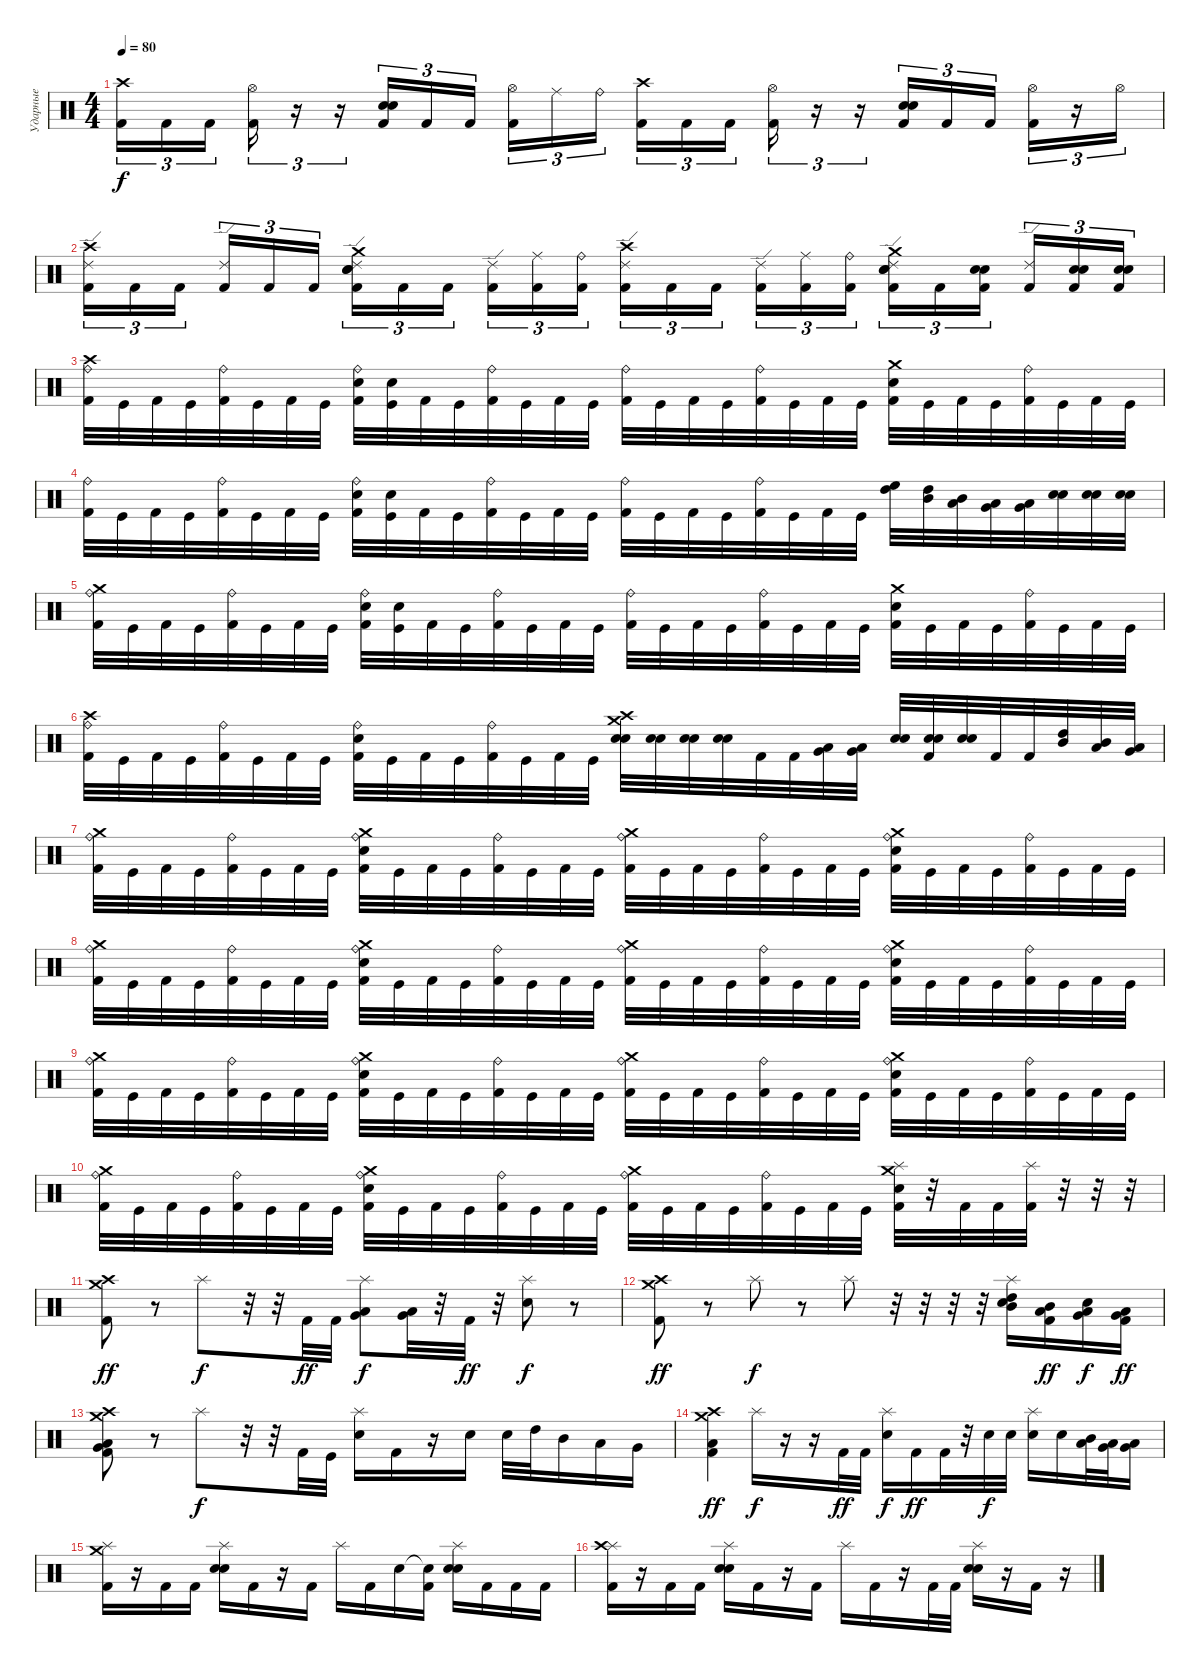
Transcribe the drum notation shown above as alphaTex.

\track ("Ударные" "Ударные") {instrument percussion}
\staff {score}
\articulation defaults
\ts (4 4)
\tempo 80
\clef neutral
\ks c
("Crash high (hit)" "Kick (hit) 2").16{tu (3 2) dy f} "Kick (hit) 2".16{tu (3 2)} "Kick (hit) 2".16{tu (3 2)} ("Hi-Hat (open)" "Kick (hit) 2").16{tu (3 2)} r.16{tu (3 2)} r.16{tu (3 2)} ("Snare (hit)" "Electric Snare (hit)" "Kick (hit) 2").16{tu (3 2)} "Kick (hit) 2".16{tu (3 2)} "Kick (hit) 2".16{tu (3 2)} ("Hi-Hat (open)" "Kick (hit) 2").16{tu (3 2)} "Ride (middle)".16{tu (3 2)} "Ride (bell)".16{tu (3 2)} ("Crash high (hit)" "Kick (hit) 2").16{tu (3 2)} "Kick (hit) 2".16{tu (3 2)} "Kick (hit) 2".16{tu (3 2)} ("Hi-Hat (open)" "Kick (hit) 2").16{tu (3 2)} r.16{tu (3 2)} r.16{tu (3 2)} ("Snare (hit)" "Electric Snare (hit)" "Kick (hit) 2").16{tu (3 2)} "Kick (hit) 2".16{tu (3 2)} "Kick (hit) 2".16{tu (3 2)} ("Hi-Hat (open)" "Kick (hit) 2").16{tu (3 2)} r.16{tu (3 2)} "Hi-Hat (open)".16{tu (3 2)} |
("Ride (edge) 2" "Crash high (hit)" "Kick (hit) 2").16{tu (3 2)} "Kick (hit) 2".16{tu (3 2)} "Kick (hit) 2".16{tu (3 2)} ("Ride (edge) 2" "Kick (hit) 2").16{tu (3 2)} "Kick (hit) 2".16{tu (3 2)} "Kick (hit) 2".16{tu (3 2)} ("Crash medium (hit)" "Ride (edge) 2" "Snare (hit)" "Electric Snare (hit)" "Kick (hit) 2").16{tu (3 2)} "Kick (hit) 2".16{tu (3 2)} "Kick (hit) 2".16{tu (3 2)} ("Ride (edge) 2" "Kick (hit) 2").16{tu (3 2)} ("Ride (middle)" "Kick (hit) 2").16{tu (3 2)} ("Ride (bell)" "Kick (hit) 2").16{tu (3 2)} ("Ride (edge) 2" "Crash high (hit)" "Kick (hit) 2").16{tu (3 2)} "Kick (hit) 2".16{tu (3 2)} "Kick (hit) 2".16{tu (3 2)} ("Ride (edge) 2" "Kick (hit) 2").16{tu (3 2)} ("Ride (middle)" "Kick (hit) 2").16{tu (3 2)} ("Ride (bell)" "Kick (hit) 2").16{tu (3 2)} ("Crash medium (hit)" "Ride (edge) 2" "Snare (hit)" "Electric Snare (hit)" "Kick (hit) 2").16{tu (3 2)} "Kick (hit) 2".16{tu (3 2)} ("Electric Snare (hit)" "Snare (hit)" "Kick (hit) 2").16{tu (3 2)} ("Ride (edge) 2" "Kick (hit) 2").16{tu (3 2)} ("Electric Snare (hit)" "Snare (hit)" "Kick (hit) 2").16{tu (3 2)} ("Electric Snare (hit)" "Snare (hit)" "Kick (hit) 2").16{tu (3 2)} |
("Crash high (hit)" "Ride (bell)" "Kick (hit) 2").32 "Kick (hit)".32 "Kick (hit) 2".32 "Kick (hit)".32 ("Ride (bell)" "Kick (hit) 2").32 "Kick (hit)".32 "Kick (hit) 2".32 "Kick (hit)".32 ("Ride (bell)" "Electric Snare (hit)" "Kick (hit) 2").32 ("Electric Snare (hit)" "Kick (hit)").32 "Kick (hit) 2".32 "Kick (hit)".32 ("Ride (bell)" "Kick (hit) 2").32 "Kick (hit)".32 "Kick (hit) 2".32 "Kick (hit)".32 ("Ride (bell)" "Kick (hit) 2").32 "Kick (hit)".32 "Kick (hit) 2".32 "Kick (hit)".32 ("Ride (bell)" "Kick (hit) 2").32 "Kick (hit)".32 "Kick (hit) 2".32 "Kick (hit)".32 ("Crash medium (hit)" "Electric Snare (hit)" "Kick (hit) 2").32 "Kick (hit)".32 "Kick (hit) 2".32 "Kick (hit)".32 ("Ride (bell)" "Kick (hit) 2").32 "Kick (hit)".32 "Kick (hit) 2".32 "Kick (hit)".32 |
("Ride (bell)" "Kick (hit) 2").32 "Kick (hit)".32 "Kick (hit) 2".32 "Kick (hit)".32 ("Ride (bell)" "Kick (hit) 2").32 "Kick (hit)".32 "Kick (hit) 2".32 "Kick (hit)".32 ("Ride (bell)" "Electric Snare (hit)" "Kick (hit) 2").32 ("Electric Snare (hit)" "Kick (hit)").32 "Kick (hit) 2".32 "Kick (hit)".32 ("Ride (bell)" "Kick (hit) 2").32 "Kick (hit)".32 "Kick (hit) 2".32 "Kick (hit)".32 ("Ride (bell)" "Kick (hit) 2").32 "Kick (hit)".32 "Kick (hit) 2".32 "Kick (hit)".32 ("Ride (bell)" "Kick (hit) 2").32 "Kick (hit)".32 "Kick (hit) 2".32 "Kick (hit)".32 ("High Floor Tom (hit)" "High Tom (hit)").32 ("High Tom (hit)" "Mid Tom (hit)").32 ("Mid Tom (hit)" "Low Tom (hit)").32 ("Low Tom (hit)" "Very Low Tom (hit)").32 ("Very Low Tom (hit)" "Low Floor Tom (hit)").32 ("Snare (hit)" "Electric Snare (hit)").32 ("Snare (hit)" "Electric Snare (hit)").32 ("Snare (hit)" "Electric Snare (hit)").32 |
("Crash medium (hit)" "Ride (bell)" "Kick (hit) 2").32 "Kick (hit)".32 "Kick (hit) 2".32 "Kick (hit)".32 ("Ride (bell)" "Kick (hit) 2").32 "Kick (hit)".32 "Kick (hit) 2".32 "Kick (hit)".32 ("Ride (bell)" "Electric Snare (hit)" "Kick (hit) 2").32 ("Electric Snare (hit)" "Kick (hit)").32 "Kick (hit) 2".32 "Kick (hit)".32 ("Ride (bell)" "Kick (hit) 2").32 "Kick (hit)".32 "Kick (hit) 2".32 "Kick (hit)".32 ("Ride (bell)" "Kick (hit) 2").32 "Kick (hit)".32 "Kick (hit) 2".32 "Kick (hit)".32 ("Ride (bell)" "Kick (hit) 2").32 "Kick (hit)".32 "Kick (hit) 2".32 "Kick (hit)".32 ("Crash medium (hit)" "Electric Snare (hit)" "Kick (hit) 2").32 "Kick (hit)".32 "Kick (hit) 2".32 "Kick (hit)".32 ("Ride (bell)" "Kick (hit) 2").32 "Kick (hit)".32 "Kick (hit) 2".32 "Kick (hit)".32 |
("Crash high (hit)" "Ride (bell)" "Kick (hit) 2").32 "Kick (hit)".32 "Kick (hit) 2".32 "Kick (hit)".32 ("Ride (bell)" "Kick (hit) 2").32 "Kick (hit)".32 "Kick (hit) 2".32 "Kick (hit)".32 ("Ride (bell)" "Electric Snare (hit)" "Kick (hit) 2").32 "Kick (hit)".32 "Kick (hit) 2".32 "Kick (hit)".32 ("Ride (bell)" "Kick (hit) 2").32 "Kick (hit)".32 "Kick (hit) 2".32 "Kick (hit)".32 ("Crash medium (hit)" "Crash high (hit)" "Electric Snare (hit)" "Snare (hit)").32 ("Electric Snare (hit)" "Snare (hit)").32 ("Electric Snare (hit)" "Snare (hit)").32 ("Electric Snare (hit)" "Snare (hit)").32 "Kick (hit) 2".32 "Kick (hit) 2".32 ("Very Low Tom (hit)" "Low Tom (hit)").32 ("Low Floor Tom (hit)" "Very Low Tom (hit)").32 ("Electric Snare (hit)" "Snare (hit)").32 ("Electric Snare (hit)" "Snare (hit)" "Kick (hit) 2").32 ("Electric Snare (hit)" "Snare (hit)").32 "Kick (hit) 2".32 "Kick (hit) 2".32 ("Mid Tom (hit)" "High Tom (hit)").32 ("Low Tom (hit)" "Mid Tom (hit)").32 ("Very Low Tom (hit)" "Low Tom (hit)").32 |
("Crash medium (hit)" "Ride (bell)" "Kick (hit) 2").32 "Kick (hit)".32 "Kick (hit) 2".32 "Kick (hit)".32 ("Ride (bell)" "Kick (hit) 2").32 "Kick (hit)".32 "Kick (hit) 2".32 "Kick (hit)".32 ("Crash medium (hit)" "Ride (bell)" "Electric Snare (hit)" "Kick (hit) 2").32 "Kick (hit)".32 "Kick (hit) 2".32 "Kick (hit)".32 ("Ride (bell)" "Kick (hit) 2").32 "Kick (hit)".32 "Kick (hit) 2".32 "Kick (hit)".32 ("Crash medium (hit)" "Ride (bell)" "Kick (hit) 2").32 "Kick (hit)".32 "Kick (hit) 2".32 "Kick (hit)".32 ("Ride (bell)" "Kick (hit) 2").32 "Kick (hit)".32 "Kick (hit) 2".32 "Kick (hit)".32 ("Crash medium (hit)" "Ride (bell)" "Electric Snare (hit)" "Kick (hit) 2").32 "Kick (hit)".32 "Kick (hit) 2".32 "Kick (hit)".32 ("Ride (bell)" "Kick (hit) 2").32 "Kick (hit)".32 "Kick (hit) 2".32 "Kick (hit)".32 |
("Crash medium (hit)" "Ride (bell)" "Kick (hit) 2").32 "Kick (hit)".32 "Kick (hit) 2".32 "Kick (hit)".32 ("Ride (bell)" "Kick (hit) 2").32 "Kick (hit)".32 "Kick (hit) 2".32 "Kick (hit)".32 ("Crash medium (hit)" "Ride (bell)" "Electric Snare (hit)" "Kick (hit) 2").32 "Kick (hit)".32 "Kick (hit) 2".32 "Kick (hit)".32 ("Ride (bell)" "Kick (hit) 2").32 "Kick (hit)".32 "Kick (hit) 2".32 "Kick (hit)".32 ("Crash medium (hit)" "Ride (bell)" "Kick (hit) 2").32 "Kick (hit)".32 "Kick (hit) 2".32 "Kick (hit)".32 ("Ride (bell)" "Kick (hit) 2").32 "Kick (hit)".32 "Kick (hit) 2".32 "Kick (hit)".32 ("Crash medium (hit)" "Ride (bell)" "Electric Snare (hit)" "Kick (hit) 2").32 "Kick (hit)".32 "Kick (hit) 2".32 "Kick (hit)".32 ("Ride (bell)" "Kick (hit) 2").32 "Kick (hit)".32 "Kick (hit) 2".32 "Kick (hit)".32 |
("Crash medium (hit)" "Ride (bell)" "Kick (hit) 2").32 "Kick (hit)".32 "Kick (hit) 2".32 "Kick (hit)".32 ("Ride (bell)" "Kick (hit) 2").32 "Kick (hit)".32 "Kick (hit) 2".32 "Kick (hit)".32 ("Crash medium (hit)" "Ride (bell)" "Electric Snare (hit)" "Kick (hit) 2").32 "Kick (hit)".32 "Kick (hit) 2".32 "Kick (hit)".32 ("Ride (bell)" "Kick (hit) 2").32 "Kick (hit)".32 "Kick (hit) 2".32 "Kick (hit)".32 ("Crash medium (hit)" "Ride (bell)" "Kick (hit) 2").32 "Kick (hit)".32 "Kick (hit) 2".32 "Kick (hit)".32 ("Ride (bell)" "Kick (hit) 2").32 "Kick (hit)".32 "Kick (hit) 2".32 "Kick (hit)".32 ("Crash medium (hit)" "Ride (bell)" "Electric Snare (hit)" "Kick (hit) 2").32 "Kick (hit)".32 "Kick (hit) 2".32 "Kick (hit)".32 ("Ride (bell)" "Kick (hit) 2").32 "Kick (hit)".32 "Kick (hit) 2".32 "Kick (hit)".32 |
("Crash medium (hit)" "Ride (bell)" "Kick (hit) 2").32 "Kick (hit)".32 "Kick (hit) 2".32 "Kick (hit)".32 ("Ride (bell)" "Kick (hit) 2").32 "Kick (hit)".32 "Kick (hit) 2".32 "Kick (hit)".32 ("Crash medium (hit)" "Ride (bell)" "Electric Snare (hit)" "Kick (hit) 2").32 "Kick (hit)".32 "Kick (hit) 2".32 "Kick (hit)".32 ("Ride (bell)" "Kick (hit) 2").32 "Kick (hit)".32 "Kick (hit) 2".32 "Kick (hit)".32 ("Crash medium (hit)" "Ride (bell)" "Kick (hit) 2").32 "Kick (hit)".32 "Kick (hit) 2".32 "Kick (hit)".32 ("Ride (bell)" "Kick (hit) 2").32 "Kick (hit)".32 "Kick (hit) 2".32 "Kick (hit)".32 ("Crash medium (hit)" "Splash (hit)" "Electric Snare (hit)" "Kick (hit) 2").32 r.32 "Kick (hit) 2".32 "Kick (hit) 2".32 ("Splash (hit)" "Kick (hit) 2").32 r.32 r.32 r.32 |
("Crash high (hit)" "Crash medium (hit)" "Kick (hit) 2").8{dy ff} r.8 "Splash (hit)".8{dy f} r.32 r.32 "Kick (hit) 2".32{dy ff} "Kick (hit) 2".32 ("Splash (hit)" "Low Tom (hit)" "Very Low Tom (hit)").8{dy f} ("Very Low Tom (hit)" "Low Floor Tom (hit)").32 r.32 "Kick (hit) 2".32{dy ff} r.32 ("Splash (hit)" "Electric Snare (hit)").8{dy f} r.8 |
("Crash medium (hit)" "Crash high (hit)" "Kick (hit) 2").8{dy ff} r.8 "Splash (hit)".8{dy f} r.8 "Splash (hit)".8 r.32 r.32 r.32 r.32 ("Splash (hit)" "High Tom (hit)" "Mid Tom (hit)" "Electric Snare (hit)").16 ("Mid Tom (hit)" "Low Tom (hit)" "Kick (hit) 2").16{dy ff} ("Low Tom (hit)" "Very Low Tom (hit)" "Electric Snare (hit)").16{dy f} ("Very Low Tom (hit)" "Low Floor Tom (hit)" "Kick (hit) 2").16{dy ff} |
("Crash high (hit)" "Crash medium (hit)" "Low Floor Tom (hit)" "Very Low Tom (hit)" "Kick (hit) 2").8 r.8 "Splash (hit)".8{dy f} r.32 r.32 "Kick (hit) 2".32 "Kick (hit)".32 ("Splash (hit)" "Electric Snare (hit)").16 "Kick (hit) 2".16 r.16 "Electric Snare (hit)".16 "Electric Snare (hit)".32 "High Tom (hit)".32 "Mid Tom (hit)".16 "Low Tom (hit)".16 "Very Low Tom (hit)".16 |
("Crash medium (hit)" "Crash high (hit)" "Low Floor Tom (hit)" "Kick (hit) 2").4{dy ff} "Splash (hit)".16{dy f} r.16 r.16 "Kick (hit) 2".32{dy ff} "Kick (hit) 2".32 ("Splash (hit)" "Electric Snare (hit)").16{dy f} "Kick (hit) 2".16{dy ff} "Kick (hit) 2".32 r.32 "Electric Snare (hit)".32{dy f} "Electric Snare (hit)".32 ("Splash (hit)" "Electric Snare (hit)").16 "Electric Snare (hit)".16 ("Mid Tom (hit)" "Low Tom (hit)").32 ("Low Tom (hit)" "Very Low Tom (hit)").32 ("Very Low Tom (hit)" "Low Floor Tom (hit)").16 |
("Splash (hit)" "Crash medium (hit)" "Kick (hit) 2").16 r.16 "Kick (hit) 2".16 "Kick (hit) 2".16 ("Splash (hit)" "Electric Snare (hit)" "Snare (hit)").16 "Kick (hit) 2".16 r.16 "Kick (hit) 2".16 "Splash (hit)".16 "Kick (hit) 2".16 "Snare (hit)".16 ("Snare (hit)"{t} "Kick (hit) 2").16 ("Splash (hit)" "Electric Snare (hit)" "Snare (hit)").16 "Kick (hit) 2".16 "Kick (hit) 2".16 "Kick (hit) 2".16 |
("Splash (hit)" "Crash high (hit)" "Kick (hit) 2").16 r.16 "Kick (hit) 2".16 "Kick (hit) 2".16 ("Splash (hit)" "Electric Snare (hit)" "Snare (hit)").16 "Kick (hit) 2".16 r.16 "Kick (hit) 2".16 "Splash (hit)".16 "Kick (hit) 2".16 r.16 "Kick (hit) 2".32 "Kick (hit) 2".32 ("Splash (hit)" "Electric Snare (hit)" "Snare (hit)").16 r.16 "Kick (hit) 2".16 r.16
